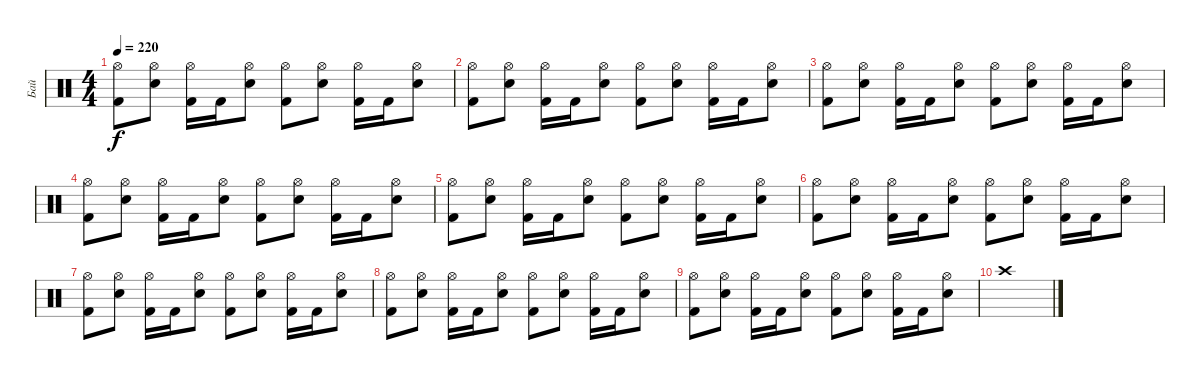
\track ("Бай" "Бай") {instrument percussion}
\staff {score}
\articulation defaults
\ts (4 4)
\tempo 220
\clef neutral
\ks c
("Hi-Hat (open)" "Kick (hit) 2").8{dy f} ("Hi-Hat (open)" "Snare (hit) 2").8 ("Hi-Hat (open)" "Kick (hit) 2").16 "Kick (hit) 2".16 ("Hi-Hat (open)" "Snare (hit) 2").8 ("Hi-Hat (open)" "Kick (hit) 2").8 ("Hi-Hat (open)" "Snare (hit) 2").8 ("Hi-Hat (open)" "Kick (hit) 2").16 "Kick (hit) 2".16 ("Hi-Hat (open)" "Snare (hit) 2").8 |
("Hi-Hat (open)" "Kick (hit) 2").8 ("Hi-Hat (open)" "Snare (hit) 2").8 ("Hi-Hat (open)" "Kick (hit) 2").16 "Kick (hit) 2".16 ("Hi-Hat (open)" "Snare (hit) 2").8 ("Hi-Hat (open)" "Kick (hit) 2").8 ("Hi-Hat (open)" "Snare (hit) 2").8 ("Hi-Hat (open)" "Kick (hit) 2").16 "Kick (hit) 2".16 ("Hi-Hat (open)" "Snare (hit) 2").8 |
("Hi-Hat (open)" "Kick (hit) 2").8 ("Hi-Hat (open)" "Snare (hit) 2").8 ("Hi-Hat (open)" "Kick (hit) 2").16 "Kick (hit) 2".16 ("Hi-Hat (open)" "Snare (hit) 2").8 ("Hi-Hat (open)" "Kick (hit) 2").8 ("Hi-Hat (open)" "Snare (hit) 2").8 ("Hi-Hat (open)" "Kick (hit) 2").16 "Kick (hit) 2".16 ("Hi-Hat (open)" "Snare (hit) 2").8 |
("Hi-Hat (open)" "Kick (hit) 2").8 ("Hi-Hat (open)" "Snare (hit) 2").8 ("Hi-Hat (open)" "Kick (hit) 2").16 "Kick (hit) 2".16 ("Hi-Hat (open)" "Snare (hit) 2").8 ("Hi-Hat (open)" "Kick (hit) 2").8 ("Hi-Hat (open)" "Snare (hit) 2").8 ("Hi-Hat (open)" "Kick (hit) 2").16 "Kick (hit) 2".16 ("Hi-Hat (open)" "Snare (hit) 2").8 |
("Hi-Hat (open)" "Kick (hit) 2").8 ("Hi-Hat (open)" "Snare (hit) 2").8 ("Hi-Hat (open)" "Kick (hit) 2").16 "Kick (hit) 2".16 ("Hi-Hat (open)" "Snare (hit) 2").8 ("Hi-Hat (open)" "Kick (hit) 2").8 ("Hi-Hat (open)" "Snare (hit) 2").8 ("Hi-Hat (open)" "Kick (hit) 2").16 "Kick (hit) 2".16 ("Hi-Hat (open)" "Snare (hit) 2").8 |
("Hi-Hat (open)" "Kick (hit) 2").8 ("Hi-Hat (open)" "Snare (hit) 2").8 ("Hi-Hat (open)" "Kick (hit) 2").16 "Kick (hit) 2".16 ("Hi-Hat (open)" "Snare (hit) 2").8 ("Hi-Hat (open)" "Kick (hit) 2").8 ("Hi-Hat (open)" "Snare (hit) 2").8 ("Hi-Hat (open)" "Kick (hit) 2").16 "Kick (hit) 2".16 ("Hi-Hat (open)" "Snare (hit) 2").8 |
("Hi-Hat (open)" "Kick (hit) 2").8 ("Hi-Hat (open)" "Snare (hit) 2").8 ("Hi-Hat (open)" "Kick (hit) 2").16 "Kick (hit) 2".16 ("Hi-Hat (open)" "Snare (hit) 2").8 ("Hi-Hat (open)" "Kick (hit) 2").8 ("Hi-Hat (open)" "Snare (hit) 2").8 ("Hi-Hat (open)" "Kick (hit) 2").16 "Kick (hit) 2".16 ("Hi-Hat (open)" "Snare (hit) 2").8 |
("Hi-Hat (open)" "Kick (hit) 2").8 ("Hi-Hat (open)" "Snare (hit) 2").8 ("Hi-Hat (open)" "Kick (hit) 2").16 "Kick (hit) 2".16 ("Hi-Hat (open)" "Snare (hit) 2").8 ("Hi-Hat (open)" "Kick (hit) 2").8 ("Hi-Hat (open)" "Snare (hit) 2").8 ("Hi-Hat (open)" "Kick (hit) 2").16 "Kick (hit) 2".16 ("Hi-Hat (open)" "Snare (hit) 2").8 |
("Hi-Hat (open)" "Kick (hit) 2").8 ("Hi-Hat (open)" "Snare (hit) 2").8 ("Hi-Hat (open)" "Kick (hit) 2").16 "Kick (hit) 2".16 ("Hi-Hat (open)" "Snare (hit) 2").8 ("Hi-Hat (open)" "Kick (hit) 2").8 ("Hi-Hat (open)" "Snare (hit) 2").8 ("Hi-Hat (open)" "Kick (hit) 2").16 "Kick (hit) 2".16 ("Hi-Hat (open)" "Snare (hit) 2").8 |
"Crash high (hit)".1
